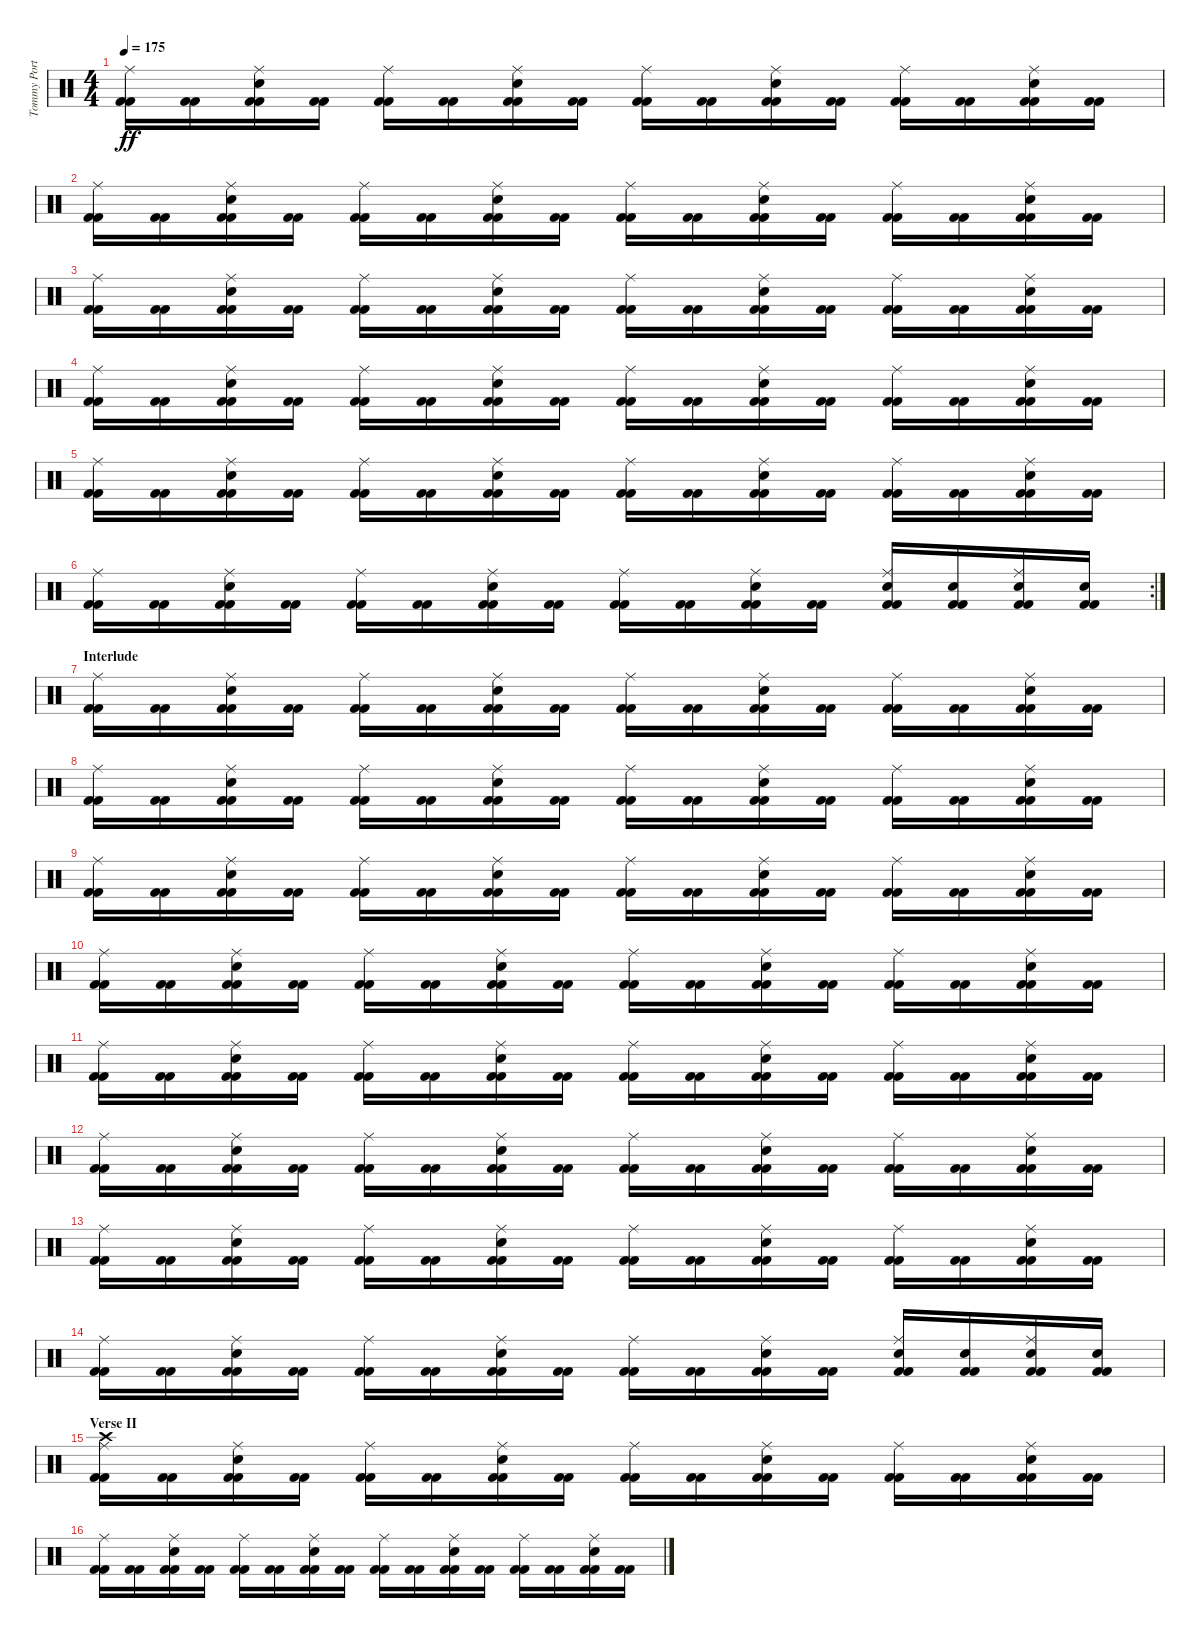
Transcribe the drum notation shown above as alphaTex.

\track ("Tommy Portimo" "Tommy Port") {instrument percussion}
\staff {score}
\articulation defaults
\ts (4 4)
\tempo 175
\clef neutral
\ks c
("Kick (hit) 2" "Kick (hit) 2" "Ride (middle)").16{dy ff} ("Kick (hit) 2" "Kick (hit) 2").16 ("Kick (hit) 2" "Kick (hit) 2" "Ride (middle)" "Electric Snare (hit)").16 ("Kick (hit) 2" "Kick (hit) 2").16 ("Kick (hit) 2" "Kick (hit) 2" "Ride (middle)").16 ("Kick (hit) 2" "Kick (hit) 2").16 ("Kick (hit) 2" "Kick (hit) 2" "Ride (middle)" "Electric Snare (hit)").16 ("Kick (hit) 2" "Kick (hit) 2").16 ("Kick (hit) 2" "Kick (hit) 2" "Ride (middle)").16 ("Kick (hit) 2" "Kick (hit) 2").16 ("Kick (hit) 2" "Kick (hit) 2" "Ride (middle)" "Electric Snare (hit)").16 ("Kick (hit) 2" "Kick (hit) 2").16 ("Kick (hit) 2" "Kick (hit) 2" "Ride (middle)").16 ("Kick (hit) 2" "Kick (hit) 2").16 ("Kick (hit) 2" "Kick (hit) 2" "Ride (middle)" "Electric Snare (hit)").16 ("Kick (hit) 2" "Kick (hit) 2").16 |
("Kick (hit) 2" "Kick (hit) 2" "Ride (middle)").16 ("Kick (hit) 2" "Kick (hit) 2").16 ("Kick (hit) 2" "Kick (hit) 2" "Ride (middle)" "Electric Snare (hit)").16 ("Kick (hit) 2" "Kick (hit) 2").16 ("Kick (hit) 2" "Kick (hit) 2" "Ride (middle)").16 ("Kick (hit) 2" "Kick (hit) 2").16 ("Kick (hit) 2" "Kick (hit) 2" "Ride (middle)" "Electric Snare (hit)").16 ("Kick (hit) 2" "Kick (hit) 2").16 ("Kick (hit) 2" "Kick (hit) 2" "Ride (middle)").16 ("Kick (hit) 2" "Kick (hit) 2").16 ("Kick (hit) 2" "Kick (hit) 2" "Ride (middle)" "Electric Snare (hit)").16 ("Kick (hit) 2" "Kick (hit) 2").16 ("Kick (hit) 2" "Kick (hit) 2" "Ride (middle)").16 ("Kick (hit) 2" "Kick (hit) 2").16 ("Kick (hit) 2" "Kick (hit) 2" "Ride (middle)" "Electric Snare (hit)").16 ("Kick (hit) 2" "Kick (hit) 2").16 |
("Kick (hit) 2" "Kick (hit) 2" "Ride (middle)").16 ("Kick (hit) 2" "Kick (hit) 2").16 ("Kick (hit) 2" "Kick (hit) 2" "Ride (middle)" "Electric Snare (hit)").16 ("Kick (hit) 2" "Kick (hit) 2").16 ("Kick (hit) 2" "Kick (hit) 2" "Ride (middle)").16 ("Kick (hit) 2" "Kick (hit) 2").16 ("Kick (hit) 2" "Kick (hit) 2" "Ride (middle)" "Electric Snare (hit)").16 ("Kick (hit) 2" "Kick (hit) 2").16 ("Kick (hit) 2" "Kick (hit) 2" "Ride (middle)").16 ("Kick (hit) 2" "Kick (hit) 2").16 ("Kick (hit) 2" "Kick (hit) 2" "Ride (middle)" "Electric Snare (hit)").16 ("Kick (hit) 2" "Kick (hit) 2").16 ("Kick (hit) 2" "Kick (hit) 2" "Ride (middle)").16 ("Kick (hit) 2" "Kick (hit) 2").16 ("Kick (hit) 2" "Kick (hit) 2" "Ride (middle)" "Electric Snare (hit)").16 ("Kick (hit) 2" "Kick (hit) 2").16 |
("Kick (hit) 2" "Kick (hit) 2" "Ride (middle)").16 ("Kick (hit) 2" "Kick (hit) 2").16 ("Kick (hit) 2" "Kick (hit) 2" "Ride (middle)" "Electric Snare (hit)").16 ("Kick (hit) 2" "Kick (hit) 2").16 ("Kick (hit) 2" "Kick (hit) 2" "Ride (middle)").16 ("Kick (hit) 2" "Kick (hit) 2").16 ("Kick (hit) 2" "Kick (hit) 2" "Ride (middle)" "Electric Snare (hit)").16 ("Kick (hit) 2" "Kick (hit) 2").16 ("Kick (hit) 2" "Kick (hit) 2" "Ride (middle)").16 ("Kick (hit) 2" "Kick (hit) 2").16 ("Kick (hit) 2" "Kick (hit) 2" "Ride (middle)" "Electric Snare (hit)").16 ("Kick (hit) 2" "Kick (hit) 2").16 ("Kick (hit) 2" "Kick (hit) 2" "Ride (middle)").16 ("Kick (hit) 2" "Kick (hit) 2").16 ("Kick (hit) 2" "Kick (hit) 2" "Ride (middle)" "Electric Snare (hit)").16 ("Kick (hit) 2" "Kick (hit) 2").16 |
("Kick (hit) 2" "Kick (hit) 2" "Ride (middle)").16 ("Kick (hit) 2" "Kick (hit) 2").16 ("Kick (hit) 2" "Kick (hit) 2" "Ride (middle)" "Electric Snare (hit)").16 ("Kick (hit) 2" "Kick (hit) 2").16 ("Kick (hit) 2" "Kick (hit) 2" "Ride (middle)").16 ("Kick (hit) 2" "Kick (hit) 2").16 ("Kick (hit) 2" "Kick (hit) 2" "Ride (middle)" "Electric Snare (hit)").16 ("Kick (hit) 2" "Kick (hit) 2").16 ("Kick (hit) 2" "Kick (hit) 2" "Ride (middle)").16 ("Kick (hit) 2" "Kick (hit) 2").16 ("Kick (hit) 2" "Kick (hit) 2" "Ride (middle)" "Electric Snare (hit)").16 ("Kick (hit) 2" "Kick (hit) 2").16 ("Kick (hit) 2" "Kick (hit) 2" "Ride (middle)").16 ("Kick (hit) 2" "Kick (hit) 2").16 ("Kick (hit) 2" "Kick (hit) 2" "Ride (middle)" "Electric Snare (hit)").16 ("Kick (hit) 2" "Kick (hit) 2").16 |
\rc 2
("Kick (hit) 2" "Kick (hit) 2" "Ride (middle)").16 ("Kick (hit) 2" "Kick (hit) 2").16 ("Kick (hit) 2" "Kick (hit) 2" "Ride (middle)" "Electric Snare (hit)").16 ("Kick (hit) 2" "Kick (hit) 2").16 ("Kick (hit) 2" "Kick (hit) 2" "Ride (middle)").16 ("Kick (hit) 2" "Kick (hit) 2").16 ("Kick (hit) 2" "Kick (hit) 2" "Ride (middle)" "Electric Snare (hit)").16 ("Kick (hit) 2" "Kick (hit) 2").16 ("Kick (hit) 2" "Kick (hit) 2" "Ride (middle)").16 ("Kick (hit) 2" "Kick (hit) 2").16 ("Kick (hit) 2" "Kick (hit) 2" "Ride (middle)" "Electric Snare (hit)").16 ("Kick (hit) 2" "Kick (hit) 2").16 ("Kick (hit) 2" "Kick (hit) 2" "Ride (middle)" "Electric Snare (hit)").16 ("Kick (hit) 2" "Kick (hit) 2" "Electric Snare (hit)").16 ("Kick (hit) 2" "Kick (hit) 2" "Ride (middle)" "Electric Snare (hit)").16 ("Kick (hit) 2" "Kick (hit) 2" "Electric Snare (hit)").16 |
\section ("" "Interlude")
("Kick (hit) 2" "Kick (hit) 2" "Ride (middle)").16 ("Kick (hit) 2" "Kick (hit) 2").16 ("Kick (hit) 2" "Kick (hit) 2" "Ride (middle)" "Electric Snare (hit)").16 ("Kick (hit) 2" "Kick (hit) 2").16 ("Kick (hit) 2" "Kick (hit) 2" "Ride (middle)").16 ("Kick (hit) 2" "Kick (hit) 2").16 ("Kick (hit) 2" "Kick (hit) 2" "Ride (middle)" "Electric Snare (hit)").16 ("Kick (hit) 2" "Kick (hit) 2").16 ("Kick (hit) 2" "Kick (hit) 2" "Ride (middle)").16 ("Kick (hit) 2" "Kick (hit) 2").16 ("Kick (hit) 2" "Kick (hit) 2" "Ride (middle)" "Electric Snare (hit)").16 ("Kick (hit) 2" "Kick (hit) 2").16 ("Kick (hit) 2" "Kick (hit) 2" "Ride (middle)").16 ("Kick (hit) 2" "Kick (hit) 2").16 ("Kick (hit) 2" "Kick (hit) 2" "Ride (middle)" "Electric Snare (hit)").16 ("Kick (hit) 2" "Kick (hit) 2").16 |
("Kick (hit) 2" "Kick (hit) 2" "Ride (middle)").16 ("Kick (hit) 2" "Kick (hit) 2").16 ("Kick (hit) 2" "Kick (hit) 2" "Ride (middle)" "Electric Snare (hit)").16 ("Kick (hit) 2" "Kick (hit) 2").16 ("Kick (hit) 2" "Kick (hit) 2" "Ride (middle)").16 ("Kick (hit) 2" "Kick (hit) 2").16 ("Kick (hit) 2" "Kick (hit) 2" "Ride (middle)" "Electric Snare (hit)").16 ("Kick (hit) 2" "Kick (hit) 2").16 ("Kick (hit) 2" "Kick (hit) 2" "Ride (middle)").16 ("Kick (hit) 2" "Kick (hit) 2").16 ("Kick (hit) 2" "Kick (hit) 2" "Ride (middle)" "Electric Snare (hit)").16 ("Kick (hit) 2" "Kick (hit) 2").16 ("Kick (hit) 2" "Kick (hit) 2" "Ride (middle)").16 ("Kick (hit) 2" "Kick (hit) 2").16 ("Kick (hit) 2" "Kick (hit) 2" "Ride (middle)" "Electric Snare (hit)").16 ("Kick (hit) 2" "Kick (hit) 2").16 |
("Kick (hit) 2" "Kick (hit) 2" "Ride (middle)").16 ("Kick (hit) 2" "Kick (hit) 2").16 ("Kick (hit) 2" "Kick (hit) 2" "Ride (middle)" "Electric Snare (hit)").16 ("Kick (hit) 2" "Kick (hit) 2").16 ("Kick (hit) 2" "Kick (hit) 2" "Ride (middle)").16 ("Kick (hit) 2" "Kick (hit) 2").16 ("Kick (hit) 2" "Kick (hit) 2" "Ride (middle)" "Electric Snare (hit)").16 ("Kick (hit) 2" "Kick (hit) 2").16 ("Kick (hit) 2" "Kick (hit) 2" "Ride (middle)").16 ("Kick (hit) 2" "Kick (hit) 2").16 ("Kick (hit) 2" "Kick (hit) 2" "Ride (middle)" "Electric Snare (hit)").16 ("Kick (hit) 2" "Kick (hit) 2").16 ("Kick (hit) 2" "Kick (hit) 2" "Ride (middle)").16 ("Kick (hit) 2" "Kick (hit) 2").16 ("Kick (hit) 2" "Kick (hit) 2" "Ride (middle)" "Electric Snare (hit)").16 ("Kick (hit) 2" "Kick (hit) 2").16 |
("Kick (hit) 2" "Kick (hit) 2" "Ride (middle)").16 ("Kick (hit) 2" "Kick (hit) 2").16 ("Kick (hit) 2" "Kick (hit) 2" "Ride (middle)" "Electric Snare (hit)").16 ("Kick (hit) 2" "Kick (hit) 2").16 ("Kick (hit) 2" "Kick (hit) 2" "Ride (middle)").16 ("Kick (hit) 2" "Kick (hit) 2").16 ("Kick (hit) 2" "Kick (hit) 2" "Ride (middle)" "Electric Snare (hit)").16 ("Kick (hit) 2" "Kick (hit) 2").16 ("Kick (hit) 2" "Kick (hit) 2" "Ride (middle)").16 ("Kick (hit) 2" "Kick (hit) 2").16 ("Kick (hit) 2" "Kick (hit) 2" "Ride (middle)" "Electric Snare (hit)").16 ("Kick (hit) 2" "Kick (hit) 2").16 ("Kick (hit) 2" "Kick (hit) 2" "Ride (middle)").16 ("Kick (hit) 2" "Kick (hit) 2").16 ("Kick (hit) 2" "Kick (hit) 2" "Ride (middle)" "Electric Snare (hit)").16 ("Kick (hit) 2" "Kick (hit) 2").16 |
("Kick (hit) 2" "Kick (hit) 2" "Ride (middle)").16 ("Kick (hit) 2" "Kick (hit) 2").16 ("Kick (hit) 2" "Kick (hit) 2" "Ride (middle)" "Electric Snare (hit)").16 ("Kick (hit) 2" "Kick (hit) 2").16 ("Kick (hit) 2" "Kick (hit) 2" "Ride (middle)").16 ("Kick (hit) 2" "Kick (hit) 2").16 ("Kick (hit) 2" "Kick (hit) 2" "Ride (middle)" "Electric Snare (hit)").16 ("Kick (hit) 2" "Kick (hit) 2").16 ("Kick (hit) 2" "Kick (hit) 2" "Ride (middle)").16 ("Kick (hit) 2" "Kick (hit) 2").16 ("Kick (hit) 2" "Kick (hit) 2" "Ride (middle)" "Electric Snare (hit)").16 ("Kick (hit) 2" "Kick (hit) 2").16 ("Kick (hit) 2" "Kick (hit) 2" "Ride (middle)").16 ("Kick (hit) 2" "Kick (hit) 2").16 ("Kick (hit) 2" "Kick (hit) 2" "Ride (middle)" "Electric Snare (hit)").16 ("Kick (hit) 2" "Kick (hit) 2").16 |
("Kick (hit) 2" "Kick (hit) 2" "Ride (middle)").16 ("Kick (hit) 2" "Kick (hit) 2").16 ("Kick (hit) 2" "Kick (hit) 2" "Ride (middle)" "Electric Snare (hit)").16 ("Kick (hit) 2" "Kick (hit) 2").16 ("Kick (hit) 2" "Kick (hit) 2" "Ride (middle)").16 ("Kick (hit) 2" "Kick (hit) 2").16 ("Kick (hit) 2" "Kick (hit) 2" "Ride (middle)" "Electric Snare (hit)").16 ("Kick (hit) 2" "Kick (hit) 2").16 ("Kick (hit) 2" "Kick (hit) 2" "Ride (middle)").16 ("Kick (hit) 2" "Kick (hit) 2").16 ("Kick (hit) 2" "Kick (hit) 2" "Ride (middle)" "Electric Snare (hit)").16 ("Kick (hit) 2" "Kick (hit) 2").16 ("Kick (hit) 2" "Kick (hit) 2" "Ride (middle)").16 ("Kick (hit) 2" "Kick (hit) 2").16 ("Kick (hit) 2" "Kick (hit) 2" "Ride (middle)" "Electric Snare (hit)").16 ("Kick (hit) 2" "Kick (hit) 2").16 |
("Kick (hit) 2" "Kick (hit) 2" "Ride (middle)").16 ("Kick (hit) 2" "Kick (hit) 2").16 ("Kick (hit) 2" "Kick (hit) 2" "Ride (middle)" "Electric Snare (hit)").16 ("Kick (hit) 2" "Kick (hit) 2").16 ("Kick (hit) 2" "Kick (hit) 2" "Ride (middle)").16 ("Kick (hit) 2" "Kick (hit) 2").16 ("Kick (hit) 2" "Kick (hit) 2" "Ride (middle)" "Electric Snare (hit)").16 ("Kick (hit) 2" "Kick (hit) 2").16 ("Kick (hit) 2" "Kick (hit) 2" "Ride (middle)").16 ("Kick (hit) 2" "Kick (hit) 2").16 ("Kick (hit) 2" "Kick (hit) 2" "Ride (middle)" "Electric Snare (hit)").16 ("Kick (hit) 2" "Kick (hit) 2").16 ("Kick (hit) 2" "Kick (hit) 2" "Ride (middle)").16 ("Kick (hit) 2" "Kick (hit) 2").16 ("Kick (hit) 2" "Kick (hit) 2" "Ride (middle)" "Electric Snare (hit)").16 ("Kick (hit) 2" "Kick (hit) 2").16 |
("Kick (hit) 2" "Kick (hit) 2" "Ride (middle)").16 ("Kick (hit) 2" "Kick (hit) 2").16 ("Kick (hit) 2" "Kick (hit) 2" "Ride (middle)" "Electric Snare (hit)").16 ("Kick (hit) 2" "Kick (hit) 2").16 ("Kick (hit) 2" "Kick (hit) 2" "Ride (middle)").16 ("Kick (hit) 2" "Kick (hit) 2").16 ("Kick (hit) 2" "Kick (hit) 2" "Ride (middle)" "Electric Snare (hit)").16 ("Kick (hit) 2" "Kick (hit) 2").16 ("Kick (hit) 2" "Kick (hit) 2" "Ride (middle)").16 ("Kick (hit) 2" "Kick (hit) 2").16 ("Kick (hit) 2" "Kick (hit) 2" "Ride (middle)" "Electric Snare (hit)").16 ("Kick (hit) 2" "Kick (hit) 2").16 ("Kick (hit) 2" "Kick (hit) 2" "Ride (middle)" "Electric Snare (hit)").16 ("Kick (hit) 2" "Kick (hit) 2" "Electric Snare (hit)").16 ("Kick (hit) 2" "Kick (hit) 2" "Ride (middle)" "Electric Snare (hit)").16 ("Kick (hit) 2" "Kick (hit) 2" "Electric Snare (hit)").16 |
\section ("" "Verse II")
("Kick (hit) 2" "Kick (hit) 2" "Ride (middle)" "Crash high (hit)").16 ("Kick (hit) 2" "Kick (hit) 2").16 ("Kick (hit) 2" "Kick (hit) 2" "Ride (middle)" "Electric Snare (hit)").16 ("Kick (hit) 2" "Kick (hit) 2").16 ("Kick (hit) 2" "Kick (hit) 2" "Ride (middle)").16 ("Kick (hit) 2" "Kick (hit) 2").16 ("Kick (hit) 2" "Kick (hit) 2" "Ride (middle)" "Electric Snare (hit)").16 ("Kick (hit) 2" "Kick (hit) 2").16 ("Kick (hit) 2" "Kick (hit) 2" "Ride (middle)").16 ("Kick (hit) 2" "Kick (hit) 2").16 ("Kick (hit) 2" "Kick (hit) 2" "Ride (middle)" "Electric Snare (hit)").16 ("Kick (hit) 2" "Kick (hit) 2").16 ("Kick (hit) 2" "Kick (hit) 2" "Ride (middle)").16 ("Kick (hit) 2" "Kick (hit) 2").16 ("Kick (hit) 2" "Kick (hit) 2" "Ride (middle)" "Electric Snare (hit)").16 ("Kick (hit) 2" "Kick (hit) 2").16 |
("Kick (hit) 2" "Kick (hit) 2" "Ride (middle)").16 ("Kick (hit) 2" "Kick (hit) 2").16 ("Kick (hit) 2" "Kick (hit) 2" "Ride (middle)" "Electric Snare (hit)").16 ("Kick (hit) 2" "Kick (hit) 2").16 ("Kick (hit) 2" "Kick (hit) 2" "Ride (middle)").16 ("Kick (hit) 2" "Kick (hit) 2").16 ("Kick (hit) 2" "Kick (hit) 2" "Ride (middle)" "Electric Snare (hit)").16 ("Kick (hit) 2" "Kick (hit) 2").16 ("Kick (hit) 2" "Kick (hit) 2" "Ride (middle)").16 ("Kick (hit) 2" "Kick (hit) 2").16 ("Kick (hit) 2" "Kick (hit) 2" "Ride (middle)" "Electric Snare (hit)").16 ("Kick (hit) 2" "Kick (hit) 2").16 ("Kick (hit) 2" "Kick (hit) 2" "Ride (middle)").16 ("Kick (hit) 2" "Kick (hit) 2").16 ("Kick (hit) 2" "Kick (hit) 2" "Ride (middle)" "Electric Snare (hit)").16 ("Kick (hit) 2" "Kick (hit) 2").16
